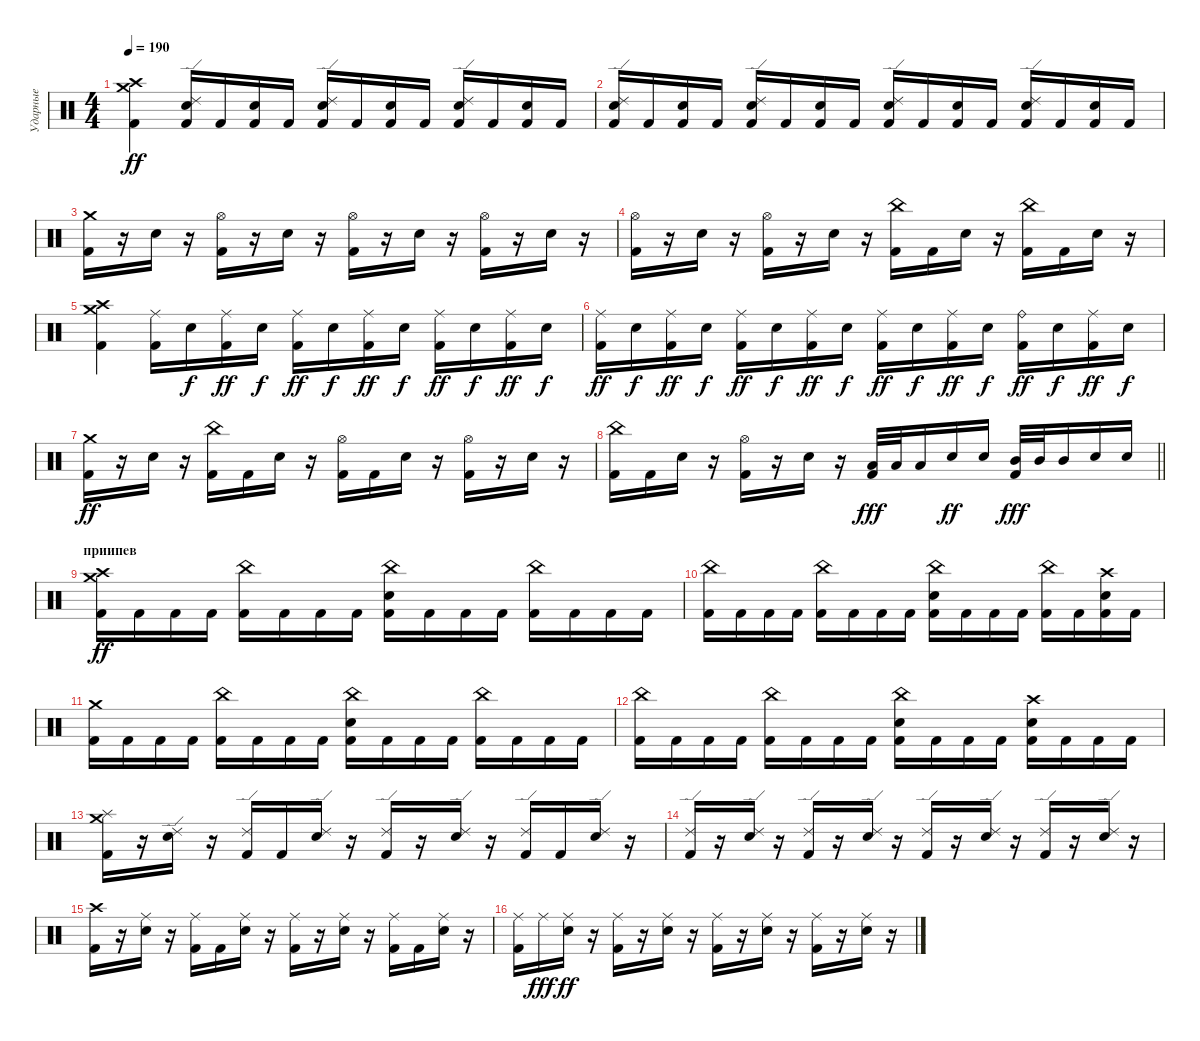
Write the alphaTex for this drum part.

\track ("Ударные" "Ударные") {instrument percussion}
\staff {score}
\articulation defaults
\ts (4 4)
\tempo 190
\clef neutral
\ks c
("Crash medium (hit)" "Crash high (hit)" "Kick (hit) 2").4{dy ff} ("Ride (edge) 2" "Electric Snare (hit)" "Kick (hit) 2").16 "Kick (hit) 2".16 ("Electric Snare (hit)" "Kick (hit) 2").16 "Kick (hit) 2".16 ("Ride (edge) 2" "Electric Snare (hit)" "Kick (hit) 2").16 "Kick (hit) 2".16 ("Electric Snare (hit)" "Kick (hit) 2").16 "Kick (hit) 2".16 ("Ride (edge) 2" "Electric Snare (hit)" "Kick (hit) 2").16 "Kick (hit) 2".16 ("Electric Snare (hit)" "Kick (hit) 2").16 "Kick (hit) 2".16 |
("Ride (edge) 2" "Electric Snare (hit)" "Kick (hit) 2").16 "Kick (hit) 2".16 ("Electric Snare (hit)" "Kick (hit) 2").16 "Kick (hit) 2".16 ("Ride (edge) 2" "Electric Snare (hit)" "Kick (hit) 2").16 "Kick (hit) 2".16 ("Electric Snare (hit)" "Kick (hit) 2").16 "Kick (hit) 2".16 ("Ride (edge) 2" "Electric Snare (hit)" "Kick (hit) 2").16 "Kick (hit) 2".16 ("Electric Snare (hit)" "Kick (hit) 2").16 "Kick (hit) 2".16 ("Ride (edge) 2" "Electric Snare (hit)" "Kick (hit) 2").16 "Kick (hit) 2".16 ("Electric Snare (hit)" "Kick (hit) 2").16 "Kick (hit) 2".16 |
("Crash medium (hit)" "Kick (hit) 2").16 r.16 "Electric Snare (hit)".16 r.16 ("Hi-Hat (open)" "Kick (hit) 2").16 r.16 "Electric Snare (hit)".16 r.16 ("Hi-Hat (open)" "Kick (hit) 2").16 r.16 "Electric Snare (hit)".16 r.16 ("Hi-Hat (open)" "Kick (hit) 2").16 r.16 "Electric Snare (hit)".16 r.16 |
("Hi-Hat (open)" "Kick (hit) 2").16 r.16 "Electric Snare (hit)".16 r.16 ("Hi-Hat (open)" "Kick (hit) 2").16 r.16 "Electric Snare (hit)".16 r.16 ("China (hit)" "Kick (hit) 2").16 "Kick (hit) 2".16 "Electric Snare (hit)".16 r.16 ("China (hit)" "Kick (hit) 2").16 "Kick (hit) 2".16 "Electric Snare (hit)".16 r.16 |
("Crash medium (hit)" "Crash high (hit)" "Kick (hit) 2").4 ("Ride (middle)" "Kick (hit) 2").16 "Electric Snare (hit)".16{dy f} ("Ride (middle)" "Kick (hit) 2").16{dy ff} "Electric Snare (hit)".16{dy f} ("Ride (middle)" "Kick (hit) 2").16{dy ff} "Electric Snare (hit)".16{dy f} ("Ride (middle)" "Kick (hit) 2").16{dy ff} "Electric Snare (hit)".16{dy f} ("Ride (middle)" "Kick (hit) 2").16{dy ff} "Electric Snare (hit)".16{dy f} ("Ride (middle)" "Kick (hit) 2").16{dy ff} "Electric Snare (hit)".16{dy f} |
("Ride (middle)" "Kick (hit) 2").16{dy ff} "Electric Snare (hit)".16{dy f} ("Ride (middle)" "Kick (hit) 2").16{dy ff} "Electric Snare (hit)".16{dy f} ("Ride (middle)" "Kick (hit) 2").16{dy ff} "Electric Snare (hit)".16{dy f} ("Ride (middle)" "Kick (hit) 2").16{dy ff} "Electric Snare (hit)".16{dy f} ("Ride (middle)" "Kick (hit) 2").16{dy ff} "Electric Snare (hit)".16{dy f} ("Ride (middle)" "Kick (hit) 2").16{dy ff} "Electric Snare (hit)".16{dy f} ("Ride (bell)" "Kick (hit) 2").16{dy ff} "Electric Snare (hit)".16{dy f} ("Ride (middle)" "Kick (hit) 2").16{dy ff} "Electric Snare (hit)".16{dy f} |
("Crash medium (hit)" "Kick (hit) 2").16{dy ff} r.16 "Electric Snare (hit)".16 r.16 ("China (hit)" "Kick (hit) 2").16 "Kick (hit) 2".16 "Electric Snare (hit)".16 r.16 ("Hi-Hat (open)" "Kick (hit) 2").16 "Kick (hit) 2".16 "Electric Snare (hit)".16 r.16 ("Hi-Hat (open)" "Kick (hit) 2").16 r.16 "Electric Snare (hit)".16 r.16 |
\barLineRight lightlight
("China (hit)" "Kick (hit) 2").16 "Kick (hit) 2".16 "Electric Snare (hit)".16 r.16 ("Hi-Hat (open)" "Kick (hit) 2").16 r.16 "Electric Snare (hit)".16 r.16 ("Low Tom (hit)" "Kick (hit) 2").32{dy fff} "Low Tom (hit)".32 "Low Tom (hit)".16 "Electric Snare (hit)".16{dy ff} "Electric Snare (hit)".16 ("Mid Tom (hit)" "Kick (hit) 2").32{dy fff} "Mid Tom (hit)".32 "Mid Tom (hit)".16 "Electric Snare (hit)".16 "Electric Snare (hit)".16 |
\section ("" "приипев")
("Crash medium (hit)" "Crash high (hit)" "Kick (hit) 2").16{dy ff} "Kick (hit) 2".16 "Kick (hit) 2".16 "Kick (hit) 2".16 ("China (hit)" "Kick (hit) 2").16 "Kick (hit) 2".16 "Kick (hit) 2".16 "Kick (hit) 2".16 ("China (hit)" "Electric Snare (hit)" "Kick (hit) 2").16 "Kick (hit) 2".16 "Kick (hit) 2".16 "Kick (hit) 2".16 ("China (hit)" "Kick (hit) 2").16 "Kick (hit) 2".16 "Kick (hit) 2".16 "Kick (hit) 2".16 |
("China (hit)" "Kick (hit) 2").16 "Kick (hit) 2".16 "Kick (hit) 2".16 "Kick (hit) 2".16 ("China (hit)" "Kick (hit) 2").16 "Kick (hit) 2".16 "Kick (hit) 2".16 "Kick (hit) 2".16 ("China (hit)" "Electric Snare (hit)" "Kick (hit) 2").16 "Kick (hit) 2".16 "Kick (hit) 2".16 "Kick (hit) 2".16 ("China (hit)" "Kick (hit) 2").16 "Kick (hit) 2".16 ("Crash high (hit)" "Electric Snare (hit)" "Kick (hit) 2").16 "Kick (hit) 2".16 |
("Crash medium (hit)" "Kick (hit) 2").16 "Kick (hit) 2".16 "Kick (hit) 2".16 "Kick (hit) 2".16 ("China (hit)" "Kick (hit) 2").16 "Kick (hit) 2".16 "Kick (hit) 2".16 "Kick (hit) 2".16 ("China (hit)" "Electric Snare (hit)" "Kick (hit) 2").16 "Kick (hit) 2".16 "Kick (hit) 2".16 "Kick (hit) 2".16 ("China (hit)" "Kick (hit) 2").16 "Kick (hit) 2".16 "Kick (hit) 2".16 "Kick (hit) 2".16 |
("China (hit)" "Kick (hit) 2").16 "Kick (hit) 2".16 "Kick (hit) 2".16 "Kick (hit) 2".16 ("China (hit)" "Kick (hit) 2").16 "Kick (hit) 2".16 "Kick (hit) 2".16 "Kick (hit) 2".16 ("China (hit)" "Electric Snare (hit)" "Kick (hit) 2").16 "Kick (hit) 2".16 "Kick (hit) 2".16 "Kick (hit) 2".16 ("Crash high (hit)" "Electric Snare (hit)" "Kick (hit) 2").16 "Kick (hit) 2".16 "Kick (hit) 2".16 "Kick (hit) 2".16 |
("Crash medium (hit)" "Splash (hit)" "Kick (hit) 2").16 r.16 ("Ride (edge) 2" "Electric Snare (hit)").16 r.16 ("Ride (edge) 2" "Kick (hit) 2").16 "Kick (hit) 2".16 ("Ride (edge) 2" "Electric Snare (hit)").16 r.16 ("Ride (edge) 2" "Kick (hit) 2").16 r.16 ("Ride (edge) 2" "Electric Snare (hit)").16 r.16 ("Ride (edge) 2" "Kick (hit) 2").16 "Kick (hit) 2".16 ("Ride (edge) 2" "Electric Snare (hit)").16 r.16 |
("Ride (edge) 2" "Kick (hit) 2").16 r.16 ("Ride (edge) 2" "Electric Snare (hit)").16 r.16 ("Ride (edge) 2" "Kick (hit) 2").16 r.16 ("Ride (edge) 2" "Electric Snare (hit)").16 r.16 ("Ride (edge) 2" "Kick (hit) 2").16 r.16 ("Ride (edge) 2" "Electric Snare (hit)").16 r.16 ("Ride (edge) 2" "Kick (hit) 2").16 r.16 ("Ride (edge) 2" "Electric Snare (hit)").16 r.16 |
("Crash high (hit)" "Kick (hit) 2").16 r.16 ("Ride (middle)" "Electric Snare (hit)").16 r.16 ("Ride (middle)" "Kick (hit) 2").16 "Kick (hit) 2".16 ("Ride (middle)" "Electric Snare (hit)").16 r.16 ("Ride (middle)" "Kick (hit) 2").16 r.16 ("Ride (middle)" "Electric Snare (hit)").16 r.16 ("Ride (middle)" "Kick (hit) 2").16 "Kick (hit) 2".16 ("Ride (middle)" "Electric Snare (hit)").16 r.16 |
("Ride (middle)" "Kick (hit) 2").16 "Ride (middle)".16{dy fff} ("Ride (middle)" "Electric Snare (hit)").16{dy ff} r.16 ("Ride (middle)" "Kick (hit) 2").16 r.16 ("Ride (middle)" "Electric Snare (hit)").16 r.16 ("Ride (middle)" "Kick (hit) 2").16 r.16 ("Ride (middle)" "Electric Snare (hit)").16 r.16 ("Ride (middle)" "Kick (hit) 2").16 r.16 ("Ride (middle)" "Electric Snare (hit)").16 r.16
